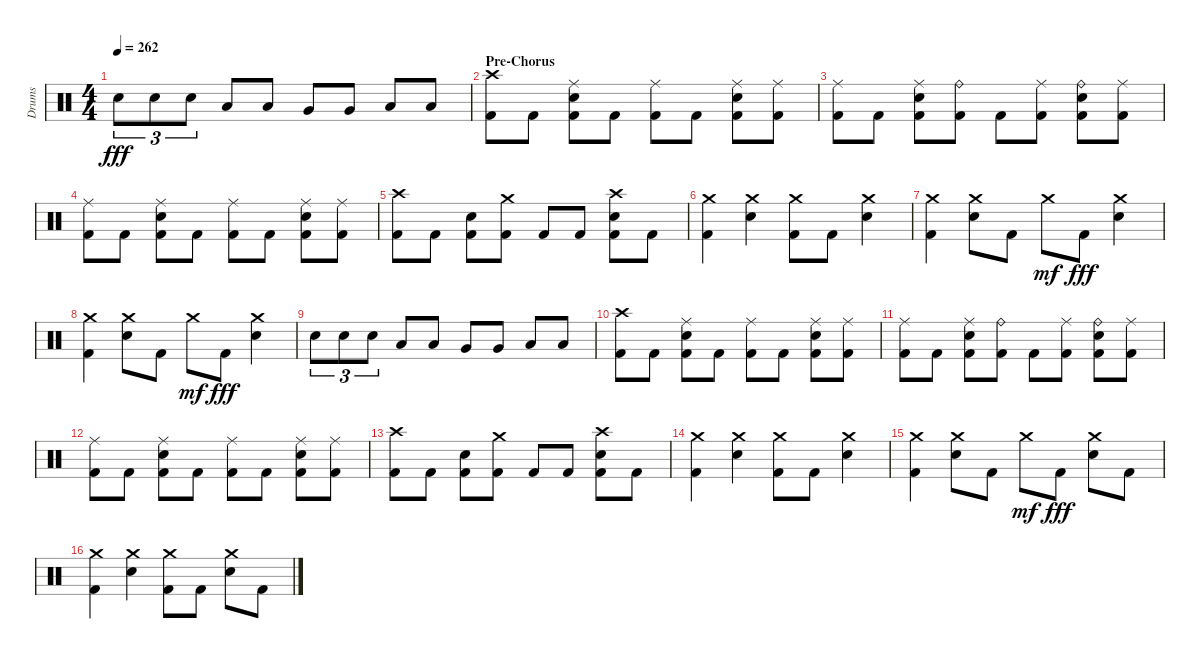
\track ("Drums" "Drums") {instrument percussion}
\staff {score}
\articulation defaults
\ts (4 4)
\tempo 262
\clef neutral
\ks aminor "Snare (hit) 2".8{tu (3 2) dy fff} "Snare (hit) 2".8{tu (3 2)} "Snare (hit) 2".8{tu (3 2)} "Low Tom (hit)".8 "Low Tom (hit)".8 "Very Low Tom (hit)".8 "Very Low Tom (hit)".8 "Low Floor Tom (hit)".8 "Low Floor Tom (hit)".8
|
\section ("" "Pre-Chorus")
("Kick (hit) 2" "Crash high (hit)").8 "Kick (hit) 2".8 ("Kick (hit) 2" "Snare (hit) 2" "Ride (middle)").8 "Kick (hit) 2".8 ("Kick (hit) 2" "Ride (middle)").8 "Kick (hit) 2".8 ("Kick (hit) 2" "Snare (hit) 2" "Ride (middle)").8 ("Kick (hit) 2" "Ride (middle)").8 |
("Kick (hit) 2" "Ride (middle)").8 "Kick (hit) 2".8 ("Kick (hit) 2" "Snare (hit) 2" "Ride (middle)").8 ("Kick (hit) 2" "Ride (bell)").8 "Kick (hit) 2".8 ("Kick (hit) 2" "Ride (middle)").8 ("Snare (hit) 2" "Kick (hit) 2" "Ride (bell)").8 ("Kick (hit) 2" "Ride (middle)").8 |
("Kick (hit) 2" "Ride (middle)").8 "Kick (hit) 2".8 ("Snare (hit) 2" "Kick (hit) 2" "Ride (middle)").8 "Kick (hit) 2".8 ("Kick (hit) 2" "Ride (middle)").8 "Kick (hit) 2".8 ("Kick (hit) 2" "Snare (hit) 2" "Ride (middle)").8 ("Kick (hit) 2" "Ride (middle)").8 |
("Kick (hit) 2" "Crash high (hit)").8 "Kick (hit) 2".8 ("Kick (hit) 2" "Snare (hit) 2").8 ("Kick (hit) 2" "Crash medium (hit)").8 "Kick (hit) 2".8 "Kick (hit) 2".8 ("Kick (hit) 2" "Snare (hit) 2" "Crash high (hit)").8 "Kick (hit) 2".8 |
("Kick (hit) 2" "Crash medium (hit)").4 ("Snare (hit) 2" "Crash medium (hit)").4 ("Kick (hit) 2" "Crash medium (hit)").8 "Kick (hit) 2".8 ("Snare (hit) 2" "Crash medium (hit)").4 |
("Kick (hit) 2" "Crash medium (hit)").4 ("Snare (hit) 2" "Crash medium (hit)").8 "Kick (hit) 2".8 "Crash medium (hit)".8{dy mf} "Kick (hit) 2".8{dy fff} ("Snare (hit) 2" "Crash medium (hit)").4 |
("Kick (hit) 2" "Crash medium (hit)").4 ("Snare (hit) 2" "Crash medium (hit)").8 "Kick (hit) 2".8 "Crash medium (hit)".8{dy mf} "Kick (hit) 2".8{dy fff} ("Snare (hit) 2" "Crash medium (hit)").4 |
"Snare (hit) 2".8{tu (3 2)} "Snare (hit) 2".8{tu (3 2)} "Snare (hit) 2".8{tu (3 2)} "Low Tom (hit)".8 "Low Tom (hit)".8 "Very Low Tom (hit)".8 "Very Low Tom (hit)".8 "Low Floor Tom (hit)".8 "Low Floor Tom (hit)".8 |
("Kick (hit) 2" "Crash high (hit)").8 "Kick (hit) 2".8 ("Kick (hit) 2" "Snare (hit) 2" "Ride (middle)").8 "Kick (hit) 2".8 ("Kick (hit) 2" "Ride (middle)").8 "Kick (hit) 2".8 ("Kick (hit) 2" "Snare (hit) 2" "Ride (middle)").8 ("Kick (hit) 2" "Ride (middle)").8 |
("Kick (hit) 2" "Ride (middle)").8 "Kick (hit) 2".8 ("Kick (hit) 2" "Snare (hit) 2" "Ride (middle)").8 ("Kick (hit) 2" "Ride (bell)").8 "Kick (hit) 2".8 ("Kick (hit) 2" "Ride (middle)").8 ("Snare (hit) 2" "Kick (hit) 2" "Ride (bell)").8 ("Kick (hit) 2" "Ride (middle)").8 |
("Kick (hit) 2" "Ride (middle)").8 "Kick (hit) 2".8 ("Snare (hit) 2" "Kick (hit) 2" "Ride (middle)").8 "Kick (hit) 2".8 ("Kick (hit) 2" "Ride (middle)").8 "Kick (hit) 2".8 ("Kick (hit) 2" "Snare (hit) 2" "Ride (middle)").8 ("Kick (hit) 2" "Ride (middle)").8 |
("Kick (hit) 2" "Crash high (hit)").8 "Kick (hit) 2".8 ("Kick (hit) 2" "Snare (hit) 2").8 ("Kick (hit) 2" "Crash medium (hit)").8 "Kick (hit) 2".8 "Kick (hit) 2".8 ("Kick (hit) 2" "Snare (hit) 2" "Crash high (hit)").8 "Kick (hit) 2".8 |
("Kick (hit) 2" "Crash medium (hit)").4 ("Snare (hit) 2" "Crash medium (hit)").4 ("Kick (hit) 2" "Crash medium (hit)").8 "Kick (hit) 2".8 ("Snare (hit) 2" "Crash medium (hit)").4 |
("Kick (hit) 2" "Crash medium (hit)").4 ("Snare (hit) 2" "Crash medium (hit)").8 "Kick (hit) 2".8 "Crash medium (hit)".8{dy mf} "Kick (hit) 2".8{dy fff} ("Snare (hit) 2" "Crash medium (hit)").8 "Kick (hit) 2".8 |
("Kick (hit) 2" "Crash medium (hit)").4 ("Snare (hit) 2" "Crash medium (hit)").4 ("Kick (hit) 2" "Crash medium (hit)").8 "Kick (hit) 2".8 ("Snare (hit) 2" "Crash medium (hit)").8 "Kick (hit) 2".8
